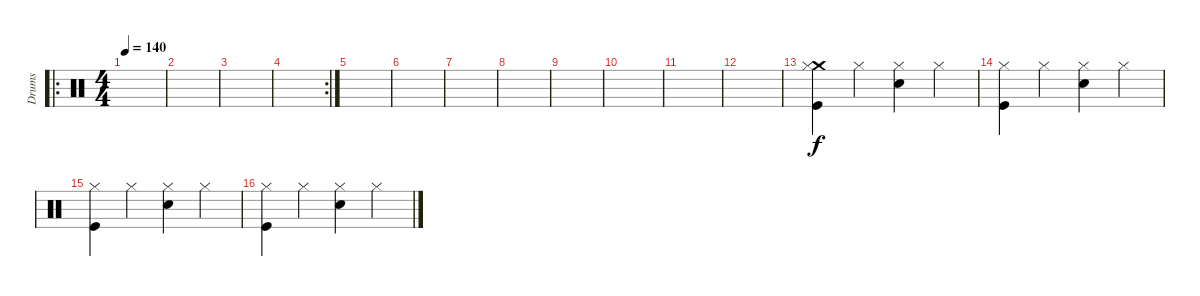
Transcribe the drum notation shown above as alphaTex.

\track ("Drums" "Drums") {instrument percussion}
\staff {score}
\articulation defaults
\ro
\ts (4 4)
\tempo 140
\clef neutral
\ks c
|
|
|
\rc 2
|
|
|
|
|
|
|
|
|
("Kick (hit)" "Crash medium (hit)" "Hi-Hat (closed)").4 "Hi-Hat (closed)".4 ("Hi-Hat (closed)" "Snare (hit) 2").4 "Hi-Hat (closed)".4 |
("Hi-Hat (closed)" "Kick (hit)").4 "Hi-Hat (closed)".4 ("Hi-Hat (closed)" "Snare (hit) 2").4 "Hi-Hat (closed)".4 |
("Hi-Hat (closed)" "Kick (hit)").4 "Hi-Hat (closed)".4 ("Hi-Hat (closed)" "Snare (hit) 2").4 "Hi-Hat (closed)".4 |
("Hi-Hat (closed)" "Kick (hit)").4 "Hi-Hat (closed)".4 ("Hi-Hat (closed)" "Snare (hit) 2").4 "Hi-Hat (closed)".4
